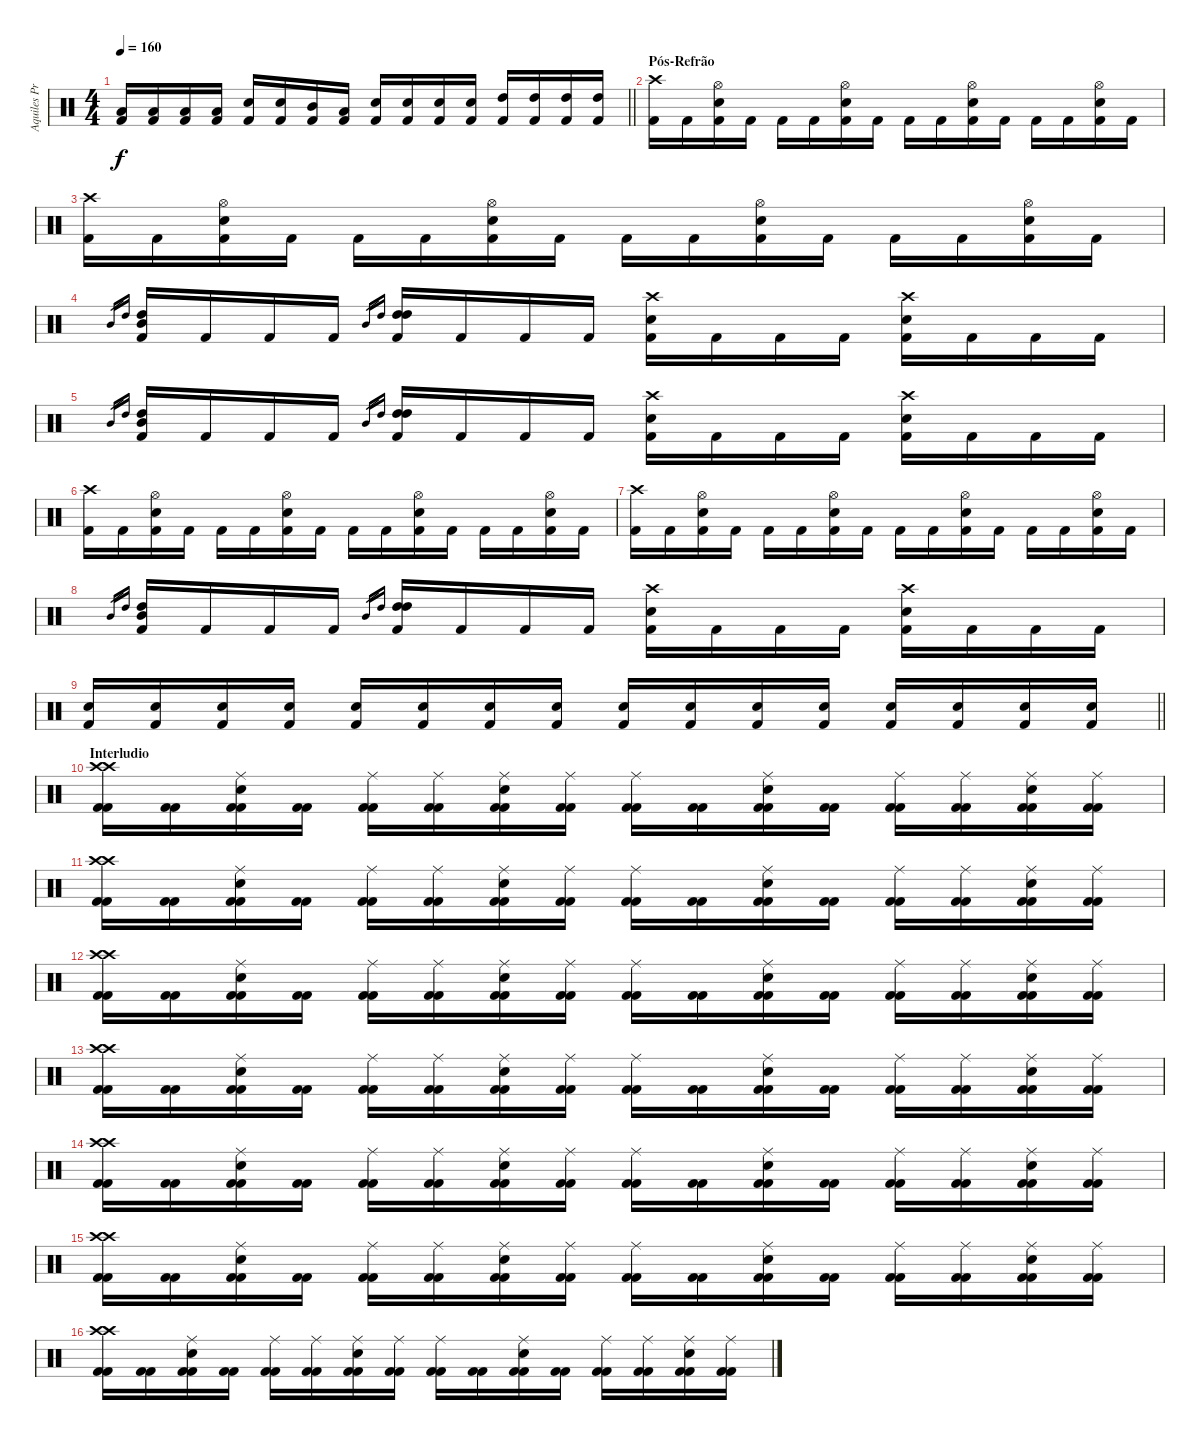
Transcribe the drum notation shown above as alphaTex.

\track ("Aquiles Priester" "Aquiles Pr") {instrument percussion}
\staff {score}
\articulation defaults
\ts (4 4)
\tempo 160
\clef neutral
\barLineRight lightlight
\ks c
("Low Tom (hit)" "Kick (hit) 2").16{dy f} ("Low Tom (hit)" "Kick (hit) 2").16 ("Low Tom (hit)" "Kick (hit) 2").16 ("Low Tom (hit)" "Kick (hit) 2").16 ("Electric Snare (hit)" "Kick (hit) 2").16 ("Electric Snare (hit)" "Kick (hit) 2").16 ("Mid Tom (hit)" "Kick (hit) 2").16 ("Low Tom (hit)" "Kick (hit) 2").16 ("Electric Snare (hit)" "Kick (hit) 2").16 ("Electric Snare (hit)" "Kick (hit) 2").16 ("Electric Snare (hit)" "Kick (hit) 2").16 ("Electric Snare (hit)" "Kick (hit) 2").16 ("High Tom (hit)" "Kick (hit) 2").16 ("High Tom (hit)" "Kick (hit) 2").16 ("High Tom (hit)" "Kick (hit) 2").16 ("High Tom (hit)" "Kick (hit) 2").16 |
\section ("" "Pós-Refrão")
("Crash high (hit)" "Kick (hit) 2").16 "Kick (hit) 2".16 ("Hi-Hat (open)" "Electric Snare (hit)" "Kick (hit) 2").16 "Kick (hit) 2".16 "Kick (hit) 2".16 "Kick (hit) 2".16 ("Hi-Hat (open)" "Electric Snare (hit)" "Kick (hit) 2").16 "Kick (hit) 2".16 "Kick (hit) 2".16 "Kick (hit) 2".16 ("Hi-Hat (open)" "Electric Snare (hit)" "Kick (hit) 2").16 "Kick (hit) 2".16 "Kick (hit) 2".16 "Kick (hit) 2".16 ("Hi-Hat (open)" "Electric Snare (hit)" "Kick (hit) 2").16 "Kick (hit) 2".16 |
("Crash high (hit)" "Kick (hit) 2").16 "Kick (hit) 2".16 ("Hi-Hat (open)" "Electric Snare (hit)" "Kick (hit) 2").16 "Kick (hit) 2".16 "Kick (hit) 2".16 "Kick (hit) 2".16 ("Hi-Hat (open)" "Electric Snare (hit)" "Kick (hit) 2").16 "Kick (hit) 2".16 "Kick (hit) 2".16 "Kick (hit) 2".16 ("Hi-Hat (open)" "Electric Snare (hit)" "Kick (hit) 2").16 "Kick (hit) 2".16 "Kick (hit) 2".16 "Kick (hit) 2".16 ("Hi-Hat (open)" "Electric Snare (hit)" "Kick (hit) 2").16 "Kick (hit) 2".16 |
"Mid Tom (hit)".16{gr} "High Tom (hit)".16{gr} ("Mid Tom (hit)" "High Tom (hit)" "Kick (hit) 2").16 "Kick (hit) 2".16 "Kick (hit) 2".16 "Kick (hit) 2".16 "Mid Tom (hit)".16{gr} "High Tom (hit)".16{gr} ("High Tom (hit)" "High Tom (hit)" "Kick (hit) 2").16 "Kick (hit) 2".16 "Kick (hit) 2".16 "Kick (hit) 2".16 ("Crash high (hit)" "Electric Snare (hit)" "Kick (hit) 2").16 "Kick (hit) 2".16 "Kick (hit) 2".16 "Kick (hit) 2".16 ("Crash high (hit)" "Electric Snare (hit)" "Kick (hit) 2").16 "Kick (hit) 2".16 "Kick (hit) 2".16 "Kick (hit) 2".16 |
"Mid Tom (hit)".16{gr} "High Tom (hit)".16{gr} ("Mid Tom (hit)" "High Tom (hit)" "Kick (hit) 2").16 "Kick (hit) 2".16 "Kick (hit) 2".16 "Kick (hit) 2".16 "Mid Tom (hit)".16{gr} "High Tom (hit)".16{gr} ("High Tom (hit)" "High Tom (hit)" "Kick (hit) 2").16 "Kick (hit) 2".16 "Kick (hit) 2".16 "Kick (hit) 2".16 ("Crash high (hit)" "Electric Snare (hit)" "Kick (hit) 2").16 "Kick (hit) 2".16 "Kick (hit) 2".16 "Kick (hit) 2".16 ("Crash high (hit)" "Electric Snare (hit)" "Kick (hit) 2").16 "Kick (hit) 2".16 "Kick (hit) 2".16 "Kick (hit) 2".16 |
("Crash high (hit)" "Kick (hit) 2").16 "Kick (hit) 2".16 ("Hi-Hat (open)" "Electric Snare (hit)" "Kick (hit) 2").16 "Kick (hit) 2".16 "Kick (hit) 2".16 "Kick (hit) 2".16 ("Hi-Hat (open)" "Electric Snare (hit)" "Kick (hit) 2").16 "Kick (hit) 2".16 "Kick (hit) 2".16 "Kick (hit) 2".16 ("Hi-Hat (open)" "Electric Snare (hit)" "Kick (hit) 2").16 "Kick (hit) 2".16 "Kick (hit) 2".16 "Kick (hit) 2".16 ("Hi-Hat (open)" "Electric Snare (hit)" "Kick (hit) 2").16 "Kick (hit) 2".16 |
("Crash high (hit)" "Kick (hit) 2").16 "Kick (hit) 2".16 ("Hi-Hat (open)" "Electric Snare (hit)" "Kick (hit) 2").16 "Kick (hit) 2".16 "Kick (hit) 2".16 "Kick (hit) 2".16 ("Hi-Hat (open)" "Electric Snare (hit)" "Kick (hit) 2").16 "Kick (hit) 2".16 "Kick (hit) 2".16 "Kick (hit) 2".16 ("Hi-Hat (open)" "Electric Snare (hit)" "Kick (hit) 2").16 "Kick (hit) 2".16 "Kick (hit) 2".16 "Kick (hit) 2".16 ("Hi-Hat (open)" "Electric Snare (hit)" "Kick (hit) 2").16 "Kick (hit) 2".16 |
"Mid Tom (hit)".16{gr} "High Tom (hit)".16{gr} ("Mid Tom (hit)" "High Tom (hit)" "Kick (hit) 2").16 "Kick (hit) 2".16 "Kick (hit) 2".16 "Kick (hit) 2".16 "Mid Tom (hit)".16{gr} "High Tom (hit)".16{gr} ("High Tom (hit)" "High Tom (hit)" "Kick (hit) 2").16 "Kick (hit) 2".16 "Kick (hit) 2".16 "Kick (hit) 2".16 ("Crash high (hit)" "Electric Snare (hit)" "Kick (hit) 2").16 "Kick (hit) 2".16 "Kick (hit) 2".16 "Kick (hit) 2".16 ("Crash high (hit)" "Electric Snare (hit)" "Kick (hit) 2").16 "Kick (hit) 2".16 "Kick (hit) 2".16 "Kick (hit) 2".16 |
\barLineRight lightlight
("Electric Snare (hit)" "Kick (hit) 2").16 ("Electric Snare (hit)" "Kick (hit) 2").16 ("Electric Snare (hit)" "Kick (hit) 2").16 ("Electric Snare (hit)" "Kick (hit) 2").16 ("Electric Snare (hit)" "Kick (hit) 2").16 ("Electric Snare (hit)" "Kick (hit) 2").16 ("Electric Snare (hit)" "Kick (hit) 2").16 ("Electric Snare (hit)" "Kick (hit) 2").16 ("Electric Snare (hit)" "Kick (hit) 2").16 ("Electric Snare (hit)" "Kick (hit) 2").16 ("Electric Snare (hit)" "Kick (hit) 2").16 ("Electric Snare (hit)" "Kick (hit) 2").16 ("Electric Snare (hit)" "Kick (hit) 2").16 ("Electric Snare (hit)" "Kick (hit) 2").16 ("Electric Snare (hit)" "Kick (hit) 2").16 ("Electric Snare (hit)" "Kick (hit) 2").16 |
\section ("" "Interludio")
("Crash high (hit)" "Crash high (hit)" "Kick (hit) 2" "Kick (hit) 2").16 ("Kick (hit) 2" "Kick (hit) 2").16 ("Ride (middle)" "Snare (hit) 2" "Kick (hit) 2" "Kick (hit) 2").16 ("Kick (hit) 2" "Kick (hit) 2").16 ("Ride (middle)" "Kick (hit) 2" "Kick (hit) 2").16 ("Ride (middle)" "Kick (hit) 2" "Kick (hit) 2").16 ("Ride (middle)" "Snare (hit) 2" "Kick (hit) 2" "Kick (hit) 2").16 ("Ride (middle)" "Kick (hit) 2" "Kick (hit) 2").16 ("Ride (middle)" "Kick (hit) 2" "Kick (hit) 2").16 ("Kick (hit) 2" "Kick (hit) 2").16 ("Ride (middle)" "Snare (hit) 2" "Kick (hit) 2" "Kick (hit) 2").16 ("Kick (hit) 2" "Kick (hit) 2").16 ("Ride (middle)" "Kick (hit) 2" "Kick (hit) 2").16 ("Ride (middle)" "Kick (hit) 2" "Kick (hit) 2").16 ("Ride (middle)" "Snare (hit) 2" "Kick (hit) 2" "Kick (hit) 2").16 ("Ride (middle)" "Kick (hit) 2" "Kick (hit) 2").16 |
("Crash high (hit)" "Crash high (hit)" "Kick (hit) 2" "Kick (hit) 2").16 ("Kick (hit) 2" "Kick (hit) 2").16 ("Ride (middle)" "Snare (hit) 2" "Kick (hit) 2" "Kick (hit) 2").16 ("Kick (hit) 2" "Kick (hit) 2").16 ("Ride (middle)" "Kick (hit) 2" "Kick (hit) 2").16 ("Ride (middle)" "Kick (hit) 2" "Kick (hit) 2").16 ("Ride (middle)" "Snare (hit) 2" "Kick (hit) 2" "Kick (hit) 2").16 ("Ride (middle)" "Kick (hit) 2" "Kick (hit) 2").16 ("Ride (middle)" "Kick (hit) 2" "Kick (hit) 2").16 ("Kick (hit) 2" "Kick (hit) 2").16 ("Ride (middle)" "Snare (hit) 2" "Kick (hit) 2" "Kick (hit) 2").16 ("Kick (hit) 2" "Kick (hit) 2").16 ("Ride (middle)" "Kick (hit) 2" "Kick (hit) 2").16 ("Ride (middle)" "Kick (hit) 2" "Kick (hit) 2").16 ("Ride (middle)" "Snare (hit) 2" "Kick (hit) 2" "Kick (hit) 2").16 ("Ride (middle)" "Kick (hit) 2" "Kick (hit) 2").16 |
("Crash high (hit)" "Crash high (hit)" "Kick (hit) 2" "Kick (hit) 2").16 ("Kick (hit) 2" "Kick (hit) 2").16 ("Ride (middle)" "Snare (hit) 2" "Kick (hit) 2" "Kick (hit) 2").16 ("Kick (hit) 2" "Kick (hit) 2").16 ("Ride (middle)" "Kick (hit) 2" "Kick (hit) 2").16 ("Ride (middle)" "Kick (hit) 2" "Kick (hit) 2").16 ("Ride (middle)" "Snare (hit) 2" "Kick (hit) 2" "Kick (hit) 2").16 ("Ride (middle)" "Kick (hit) 2" "Kick (hit) 2").16 ("Ride (middle)" "Kick (hit) 2" "Kick (hit) 2").16 ("Kick (hit) 2" "Kick (hit) 2").16 ("Ride (middle)" "Snare (hit) 2" "Kick (hit) 2" "Kick (hit) 2").16 ("Kick (hit) 2" "Kick (hit) 2").16 ("Ride (middle)" "Kick (hit) 2" "Kick (hit) 2").16 ("Ride (middle)" "Kick (hit) 2" "Kick (hit) 2").16 ("Ride (middle)" "Snare (hit) 2" "Kick (hit) 2" "Kick (hit) 2").16 ("Ride (middle)" "Kick (hit) 2" "Kick (hit) 2").16 |
("Crash high (hit)" "Crash high (hit)" "Kick (hit) 2" "Kick (hit) 2").16 ("Kick (hit) 2" "Kick (hit) 2").16 ("Ride (middle)" "Snare (hit) 2" "Kick (hit) 2" "Kick (hit) 2").16 ("Kick (hit) 2" "Kick (hit) 2").16 ("Ride (middle)" "Kick (hit) 2" "Kick (hit) 2").16 ("Ride (middle)" "Kick (hit) 2" "Kick (hit) 2").16 ("Ride (middle)" "Snare (hit) 2" "Kick (hit) 2" "Kick (hit) 2").16 ("Ride (middle)" "Kick (hit) 2" "Kick (hit) 2").16 ("Ride (middle)" "Kick (hit) 2" "Kick (hit) 2").16 ("Kick (hit) 2" "Kick (hit) 2").16 ("Ride (middle)" "Snare (hit) 2" "Kick (hit) 2" "Kick (hit) 2").16 ("Kick (hit) 2" "Kick (hit) 2").16 ("Ride (middle)" "Kick (hit) 2" "Kick (hit) 2").16 ("Ride (middle)" "Kick (hit) 2" "Kick (hit) 2").16 ("Ride (middle)" "Snare (hit) 2" "Kick (hit) 2" "Kick (hit) 2").16 ("Ride (middle)" "Kick (hit) 2" "Kick (hit) 2").16 |
("Crash high (hit)" "Crash high (hit)" "Kick (hit) 2" "Kick (hit) 2").16 ("Kick (hit) 2" "Kick (hit) 2").16 ("Ride (middle)" "Snare (hit) 2" "Kick (hit) 2" "Kick (hit) 2").16 ("Kick (hit) 2" "Kick (hit) 2").16 ("Ride (middle)" "Kick (hit) 2" "Kick (hit) 2").16 ("Ride (middle)" "Kick (hit) 2" "Kick (hit) 2").16 ("Ride (middle)" "Snare (hit) 2" "Kick (hit) 2" "Kick (hit) 2").16 ("Ride (middle)" "Kick (hit) 2" "Kick (hit) 2").16 ("Ride (middle)" "Kick (hit) 2" "Kick (hit) 2").16 ("Kick (hit) 2" "Kick (hit) 2").16 ("Ride (middle)" "Snare (hit) 2" "Kick (hit) 2" "Kick (hit) 2").16 ("Kick (hit) 2" "Kick (hit) 2").16 ("Ride (middle)" "Kick (hit) 2" "Kick (hit) 2").16 ("Ride (middle)" "Kick (hit) 2" "Kick (hit) 2").16 ("Ride (middle)" "Snare (hit) 2" "Kick (hit) 2" "Kick (hit) 2").16 ("Ride (middle)" "Kick (hit) 2" "Kick (hit) 2").16 |
("Crash high (hit)" "Crash high (hit)" "Kick (hit) 2" "Kick (hit) 2").16 ("Kick (hit) 2" "Kick (hit) 2").16 ("Ride (middle)" "Snare (hit) 2" "Kick (hit) 2" "Kick (hit) 2").16 ("Kick (hit) 2" "Kick (hit) 2").16 ("Ride (middle)" "Kick (hit) 2" "Kick (hit) 2").16 ("Ride (middle)" "Kick (hit) 2" "Kick (hit) 2").16 ("Ride (middle)" "Snare (hit) 2" "Kick (hit) 2" "Kick (hit) 2").16 ("Ride (middle)" "Kick (hit) 2" "Kick (hit) 2").16 ("Ride (middle)" "Kick (hit) 2" "Kick (hit) 2").16 ("Kick (hit) 2" "Kick (hit) 2").16 ("Ride (middle)" "Snare (hit) 2" "Kick (hit) 2" "Kick (hit) 2").16 ("Kick (hit) 2" "Kick (hit) 2").16 ("Ride (middle)" "Kick (hit) 2" "Kick (hit) 2").16 ("Ride (middle)" "Kick (hit) 2" "Kick (hit) 2").16 ("Ride (middle)" "Snare (hit) 2" "Kick (hit) 2" "Kick (hit) 2").16 ("Ride (middle)" "Kick (hit) 2" "Kick (hit) 2").16 |
("Crash high (hit)" "Crash high (hit)" "Kick (hit) 2" "Kick (hit) 2").16 ("Kick (hit) 2" "Kick (hit) 2").16 ("Ride (middle)" "Snare (hit) 2" "Kick (hit) 2" "Kick (hit) 2").16 ("Kick (hit) 2" "Kick (hit) 2").16 ("Ride (middle)" "Kick (hit) 2" "Kick (hit) 2").16 ("Ride (middle)" "Kick (hit) 2" "Kick (hit) 2").16 ("Ride (middle)" "Snare (hit) 2" "Kick (hit) 2" "Kick (hit) 2").16 ("Ride (middle)" "Kick (hit) 2" "Kick (hit) 2").16 ("Ride (middle)" "Kick (hit) 2" "Kick (hit) 2").16 ("Kick (hit) 2" "Kick (hit) 2").16 ("Ride (middle)" "Snare (hit) 2" "Kick (hit) 2" "Kick (hit) 2").16 ("Kick (hit) 2" "Kick (hit) 2").16 ("Ride (middle)" "Kick (hit) 2" "Kick (hit) 2").16 ("Ride (middle)" "Kick (hit) 2" "Kick (hit) 2").16 ("Ride (middle)" "Snare (hit) 2" "Kick (hit) 2" "Kick (hit) 2").16 ("Ride (middle)" "Kick (hit) 2" "Kick (hit) 2").16
